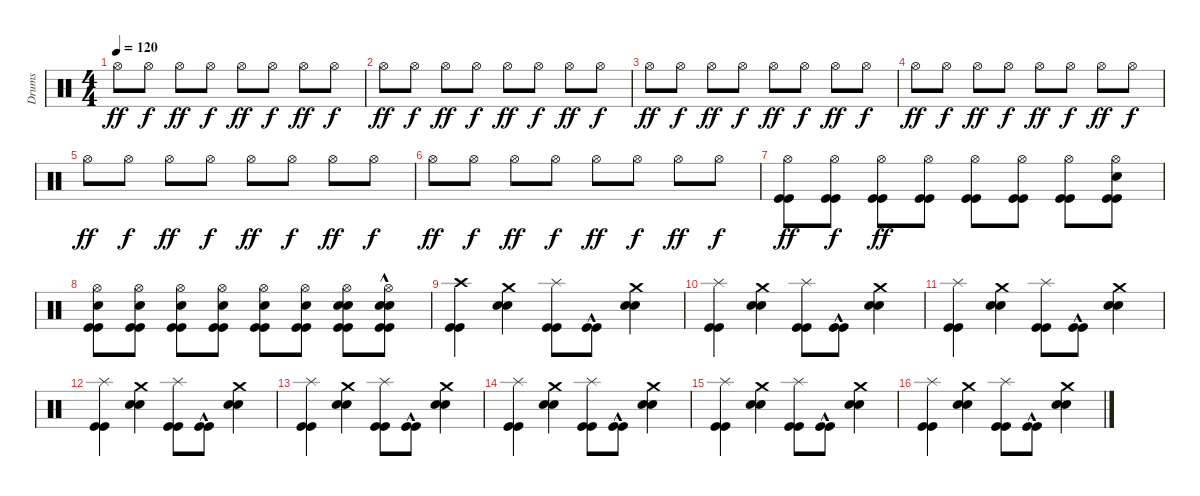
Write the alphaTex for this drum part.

\track ("Drums" "Drums") {instrument percussion}
\staff {score}
\articulation defaults
\ts (4 4)
\tempo 120
\clef neutral
\ks c "Hi-Hat (open)".8{dy ff volume 11} "Hi-Hat (open)".8{dy f} "Hi-Hat (open)".8{dy ff} "Hi-Hat (open)".8{dy f} "Hi-Hat (open)".8{dy ff} "Hi-Hat (open)".8{dy f} "Hi-Hat (open)".8{dy ff} "Hi-Hat (open)".8{dy f}
|
"Hi-Hat (open)".8{dy ff} "Hi-Hat (open)".8{dy f} "Hi-Hat (open)".8{dy ff} "Hi-Hat (open)".8{dy f} "Hi-Hat (open)".8{dy ff} "Hi-Hat (open)".8{dy f} "Hi-Hat (open)".8{dy ff} "Hi-Hat (open)".8{dy f} |
"Hi-Hat (open)".8{dy ff} "Hi-Hat (open)".8{dy f} "Hi-Hat (open)".8{dy ff} "Hi-Hat (open)".8{dy f} "Hi-Hat (open)".8{dy ff} "Hi-Hat (open)".8{dy f} "Hi-Hat (open)".8{dy ff} "Hi-Hat (open)".8{dy f} |
"Hi-Hat (open)".8{dy ff} "Hi-Hat (open)".8{dy f} "Hi-Hat (open)".8{dy ff} "Hi-Hat (open)".8{dy f} "Hi-Hat (open)".8{dy ff} "Hi-Hat (open)".8{dy f} "Hi-Hat (open)".8{dy ff} "Hi-Hat (open)".8{dy f} |
"Hi-Hat (open)".8{dy ff} "Hi-Hat (open)".8{dy f} "Hi-Hat (open)".8{dy ff} "Hi-Hat (open)".8{dy f} "Hi-Hat (open)".8{dy ff} "Hi-Hat (open)".8{dy f} "Hi-Hat (open)".8{dy ff} "Hi-Hat (open)".8{dy f} |
"Hi-Hat (open)".8{dy ff} "Hi-Hat (open)".8{dy f} "Hi-Hat (open)".8{dy ff} "Hi-Hat (open)".8{dy f} "Hi-Hat (open)".8{dy ff} "Hi-Hat (open)".8{dy f} "Hi-Hat (open)".8{dy ff} "Hi-Hat (open)".8{dy f} |
("Kick (hit)" "Kick (hit)" "Hi-Hat (open)").8{dy ff volume 16} ("Kick (hit)" "Kick (hit)" "Hi-Hat (open)").8{dy f} ("Kick (hit)" "Kick (hit)" "Hi-Hat (open)").8{dy ff} ("Kick (hit)" "Kick (hit)" "Hi-Hat (open)").8 ("Kick (hit)" "Kick (hit)" "Hi-Hat (open)").8 ("Kick (hit)" "Kick (hit)" "Hi-Hat (open)").8 ("Kick (hit)" "Kick (hit)" "Hi-Hat (open)").8 ("Kick (hit)" "Kick (hit)" "Snare (hit) 2" "Hi-Hat (open)").8 |
("Kick (hit)" "Kick (hit)" "Snare (hit) 2" "Hi-Hat (open)").8 ("Kick (hit)" "Kick (hit)" "Snare (hit) 2" "Hi-Hat (open)").8 ("Kick (hit)" "Kick (hit)" "Snare (hit) 2" "Hi-Hat (open)").8 ("Kick (hit)" "Kick (hit)" "Snare (hit) 2" "Hi-Hat (open)").8 ("Kick (hit)" "Kick (hit)" "Snare (hit) 2" "Hi-Hat (open)").8 ("Kick (hit)" "Kick (hit)" "Snare (hit) 2" "Hi-Hat (open)").8 ("Kick (hit)" "Kick (hit)" "Snare (hit) 2" "Snare (hit) 2" "Hi-Hat (open)").8 ("Kick (hit)" "Kick (hit)" "Snare (hit) 2"{hac} "Snare (hit) 2"{hac} "Hi-Hat (open)").8 |
("Kick (hit)" "Kick (hit)" "Crash high (hit)").4 ("Snare (hit) 2" "Snare (hit) 2" "Crash medium (hit)").4 ("Kick (hit)" "Kick (hit)" "Splash (hit)").8 ("Kick (hit)"{hac} "Kick (hit)"{hac}).8 ("Snare (hit) 2" "Snare (hit) 2" "Crash medium (hit)").4 |
("Kick (hit)" "Kick (hit)" "Splash (hit)").4 ("Snare (hit) 2" "Snare (hit) 2" "Crash medium (hit)").4 ("Kick (hit)" "Kick (hit)" "Splash (hit)").8 ("Kick (hit)"{hac} "Kick (hit)"{hac}).8 ("Snare (hit) 2" "Snare (hit) 2" "Crash medium (hit)").4 |
("Kick (hit)" "Kick (hit)" "Splash (hit)").4 ("Snare (hit) 2" "Snare (hit) 2" "Crash medium (hit)").4 ("Kick (hit)" "Kick (hit)" "Splash (hit)").8 ("Kick (hit)"{hac} "Kick (hit)"{hac}).8 ("Snare (hit) 2" "Snare (hit) 2" "Crash medium (hit)").4 |
("Kick (hit)" "Kick (hit)" "Splash (hit)").4 ("Snare (hit) 2" "Snare (hit) 2" "Crash medium (hit)").4 ("Kick (hit)" "Kick (hit)" "Splash (hit)").8 ("Kick (hit)"{hac} "Kick (hit)"{hac}).8 ("Snare (hit) 2" "Snare (hit) 2" "Crash medium (hit)").4 |
("Kick (hit)" "Kick (hit)" "Splash (hit)").4 ("Snare (hit) 2" "Snare (hit) 2" "Crash medium (hit)").4 ("Kick (hit)" "Kick (hit)" "Splash (hit)").8 ("Kick (hit)"{hac} "Kick (hit)"{hac}).8 ("Snare (hit) 2" "Snare (hit) 2" "Crash medium (hit)").4 |
("Kick (hit)" "Kick (hit)" "Splash (hit)").4 ("Snare (hit) 2" "Snare (hit) 2" "Crash medium (hit)").4 ("Kick (hit)" "Kick (hit)" "Splash (hit)").8 ("Kick (hit)"{hac} "Kick (hit)"{hac}).8 ("Snare (hit) 2" "Snare (hit) 2" "Crash medium (hit)").4 |
("Kick (hit)" "Kick (hit)" "Splash (hit)").4 ("Snare (hit) 2" "Snare (hit) 2" "Crash medium (hit)").4 ("Kick (hit)" "Kick (hit)" "Splash (hit)").8 ("Kick (hit)"{hac} "Kick (hit)"{hac}).8 ("Snare (hit) 2" "Snare (hit) 2" "Crash medium (hit)").4 |
("Kick (hit)" "Kick (hit)" "Splash (hit)").4 ("Snare (hit) 2" "Snare (hit) 2" "Crash medium (hit)").4 ("Kick (hit)" "Kick (hit)" "Splash (hit)").8 ("Kick (hit)"{hac} "Kick (hit)"{hac}).8 ("Snare (hit) 2" "Snare (hit) 2" "Crash medium (hit)").4
